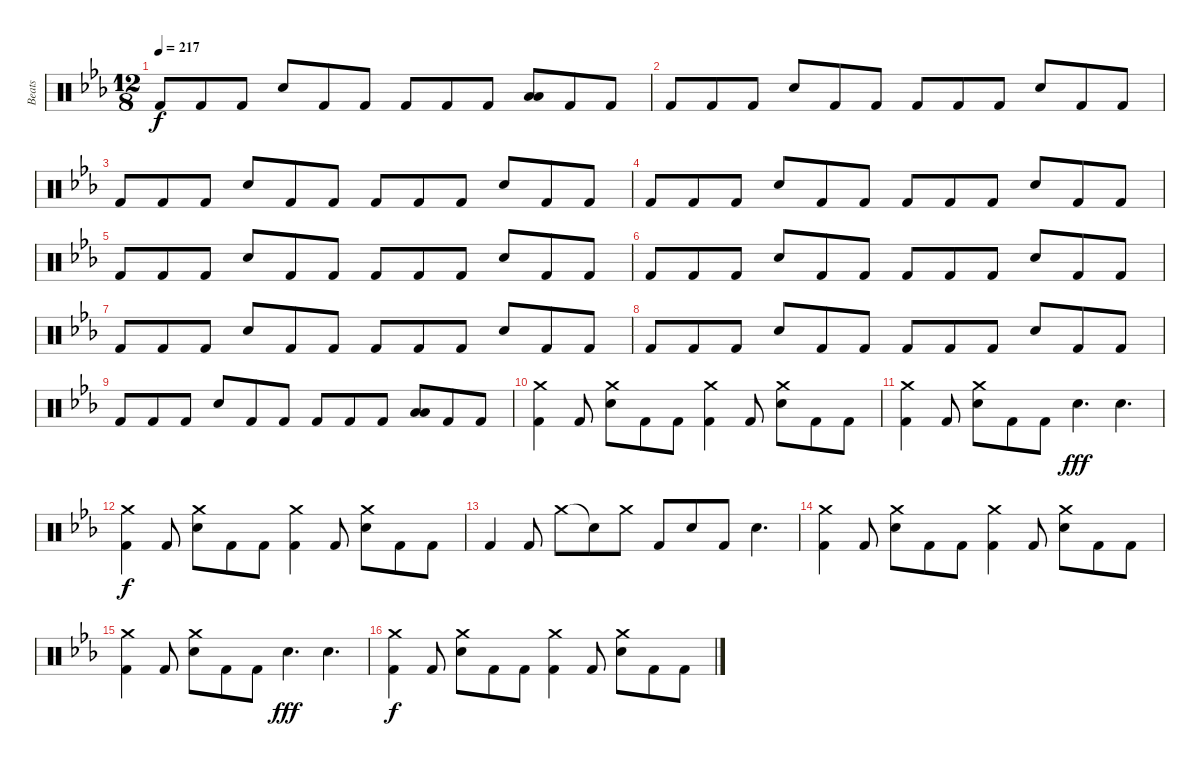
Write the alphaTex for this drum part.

\track ("Beats" "Beats") {instrument percussion}
\staff {score}
\articulation defaults
\ts (12 8)
\tempo 217
\clef neutral
\ks eb "Kick (hit) 2".8{dy f} "Kick (hit) 2".8 "Kick (hit) 2".8 "Snare (hit) 2".8 "Kick (hit) 2".8 "Kick (hit) 2".8 "Kick (hit) 2".8 "Kick (hit) 2".8 "Kick (hit) 2".8
("Low Tom (hit)" "Low Tom (hit)").8 "Kick (hit) 2".8 "Kick (hit) 2".8 |
"Kick (hit) 2".8 "Kick (hit) 2".8 "Kick (hit) 2".8 "Snare (hit) 2".8 "Kick (hit) 2".8 "Kick (hit) 2".8 "Kick (hit) 2".8 "Kick (hit) 2".8 "Kick (hit) 2".8 "Snare (hit) 2".8 "Kick (hit) 2".8 "Kick (hit) 2".8 |
"Kick (hit) 2".8 "Kick (hit) 2".8 "Kick (hit) 2".8 "Snare (hit) 2".8 "Kick (hit) 2".8 "Kick (hit) 2".8 "Kick (hit) 2".8 "Kick (hit) 2".8 "Kick (hit) 2".8 "Snare (hit) 2".8 "Kick (hit) 2".8 "Kick (hit) 2".8 |
"Kick (hit) 2".8 "Kick (hit) 2".8 "Kick (hit) 2".8 "Snare (hit) 2".8 "Kick (hit) 2".8 "Kick (hit) 2".8 "Kick (hit) 2".8 "Kick (hit) 2".8 "Kick (hit) 2".8 "Snare (hit) 2".8 "Kick (hit) 2".8 "Kick (hit) 2".8 |
"Kick (hit) 2".8 "Kick (hit) 2".8 "Kick (hit) 2".8 "Snare (hit) 2".8 "Kick (hit) 2".8 "Kick (hit) 2".8 "Kick (hit) 2".8 "Kick (hit) 2".8 "Kick (hit) 2".8 "Snare (hit) 2".8 "Kick (hit) 2".8 "Kick (hit) 2".8 |
"Kick (hit) 2".8 "Kick (hit) 2".8 "Kick (hit) 2".8 "Snare (hit) 2".8 "Kick (hit) 2".8 "Kick (hit) 2".8 "Kick (hit) 2".8 "Kick (hit) 2".8 "Kick (hit) 2".8 "Snare (hit) 2".8 "Kick (hit) 2".8 "Kick (hit) 2".8 |
"Kick (hit) 2".8 "Kick (hit) 2".8 "Kick (hit) 2".8 "Snare (hit) 2".8 "Kick (hit) 2".8 "Kick (hit) 2".8 "Kick (hit) 2".8 "Kick (hit) 2".8 "Kick (hit) 2".8 "Snare (hit) 2".8 "Kick (hit) 2".8 "Kick (hit) 2".8 |
"Kick (hit) 2".8 "Kick (hit) 2".8 "Kick (hit) 2".8 "Snare (hit) 2".8 "Kick (hit) 2".8 "Kick (hit) 2".8 "Kick (hit) 2".8 "Kick (hit) 2".8 "Kick (hit) 2".8 "Snare (hit) 2".8 "Kick (hit) 2".8 "Kick (hit) 2".8 |
"Kick (hit) 2".8 "Kick (hit) 2".8 "Kick (hit) 2".8 "Snare (hit) 2".8 "Kick (hit) 2".8 "Kick (hit) 2".8 "Kick (hit) 2".8 "Kick (hit) 2".8 "Kick (hit) 2".8 ("Low Tom (hit)" "Low Tom (hit)").8 "Kick (hit) 2".8 "Kick (hit) 2".8 |
("Crash medium (hit)" "Kick (hit) 2").4 "Kick (hit) 2".8 ("Crash medium (hit)" "Snare (hit) 2").8 "Kick (hit) 2".8 "Kick (hit) 2".8 ("Crash medium (hit)" "Kick (hit) 2").4 "Kick (hit) 2".8 ("Crash medium (hit)" "Snare (hit) 2").8 "Kick (hit) 2".8 "Kick (hit) 2".8 |
("Crash medium (hit)" "Kick (hit) 2").4 "Kick (hit) 2".8 ("Crash medium (hit)" "Snare (hit) 2").8 "Kick (hit) 2".8 "Kick (hit) 2".8 "Snare (hit) 2".4{d dy fff} "Snare (hit) 2".4{d} |
("Crash medium (hit)" "Kick (hit) 2").4{dy f} "Kick (hit) 2".8 ("Crash medium (hit)" "Snare (hit) 2").8 "Kick (hit) 2".8 "Kick (hit) 2".8 ("Crash medium (hit)" "Kick (hit) 2").4 "Kick (hit) 2".8 ("Crash medium (hit)" "Snare (hit) 2").8 "Kick (hit) 2".8 "Kick (hit) 2".8 |
"Kick (hit) 2".4 "Kick (hit) 2".8 "Crash medium (hit)".8 "Snare (hit)"{t}.8 "Crash medium (hit)".8 "Kick (hit) 2".8 "Snare (hit) 2".8 "Kick (hit) 2".8 "Snare (hit) 2".4{d} |
("Crash medium (hit)" "Kick (hit) 2").4 "Kick (hit) 2".8 ("Crash medium (hit)" "Snare (hit) 2").8 "Kick (hit) 2".8 "Kick (hit) 2".8 ("Crash medium (hit)" "Kick (hit) 2").4 "Kick (hit) 2".8 ("Crash medium (hit)" "Snare (hit) 2").8 "Kick (hit) 2".8 "Kick (hit) 2".8 |
("Crash medium (hit)" "Kick (hit) 2").4 "Kick (hit) 2".8 ("Crash medium (hit)" "Snare (hit) 2").8 "Kick (hit) 2".8 "Kick (hit) 2".8 "Snare (hit) 2".4{d dy fff} "Snare (hit) 2".4{d} |
("Crash medium (hit)" "Kick (hit) 2").4{dy f} "Kick (hit) 2".8 ("Crash medium (hit)" "Snare (hit) 2").8 "Kick (hit) 2".8 "Kick (hit) 2".8 ("Crash medium (hit)" "Kick (hit) 2").4 "Kick (hit) 2".8 ("Crash medium (hit)" "Snare (hit) 2").8 "Kick (hit) 2".8 "Kick (hit) 2".8
